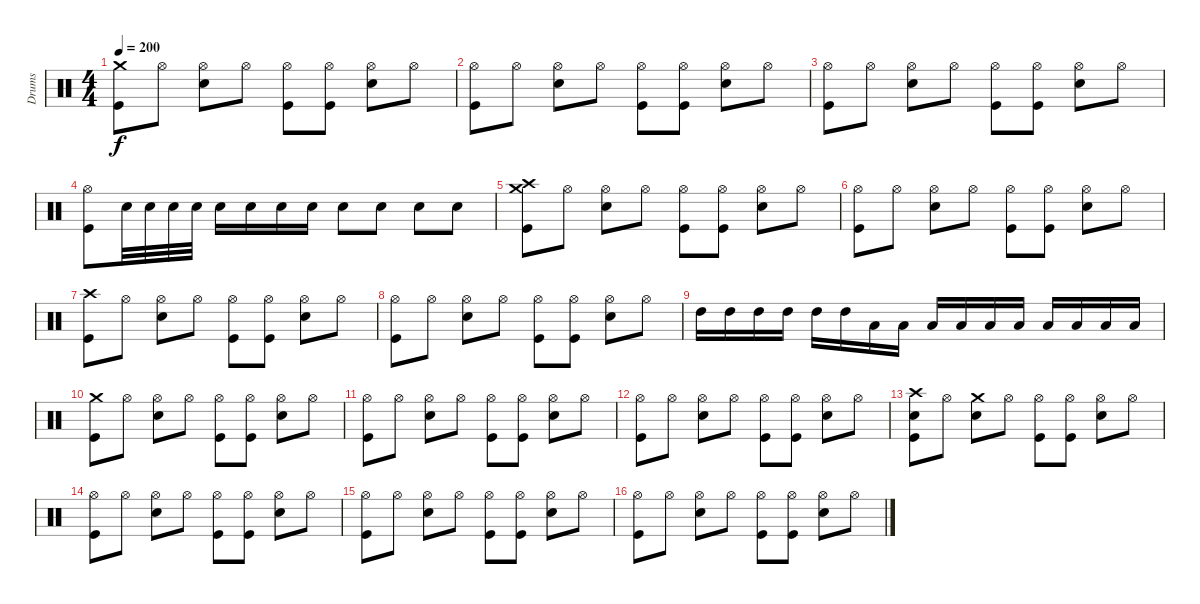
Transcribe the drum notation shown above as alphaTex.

\track ("Drums" "Drums") {instrument percussion}
\staff {score}
\articulation defaults
\ts (4 4)
\tempo 200
\clef neutral
\ks c
("Crash medium (hit)" "Kick (hit)").8{dy f} "Hi-Hat (open)".8 ("Hi-Hat (open)" "Snare (hit) 2").8 "Hi-Hat (open)".8 ("Hi-Hat (open)" "Kick (hit)").8 ("Hi-Hat (open)" "Kick (hit)").8 ("Hi-Hat (open)" "Snare (hit) 2").8 "Hi-Hat (open)".8 |
("Hi-Hat (open)" "Kick (hit)").8 "Hi-Hat (open)".8 ("Hi-Hat (open)" "Snare (hit) 2").8 "Hi-Hat (open)".8 ("Hi-Hat (open)" "Kick (hit)").8 ("Hi-Hat (open)" "Kick (hit)").8 ("Hi-Hat (open)" "Snare (hit) 2").8 "Hi-Hat (open)".8 |
("Hi-Hat (open)" "Kick (hit)").8 "Hi-Hat (open)".8 ("Hi-Hat (open)" "Snare (hit) 2").8 "Hi-Hat (open)".8 ("Hi-Hat (open)" "Kick (hit)").8 ("Hi-Hat (open)" "Kick (hit)").8 ("Hi-Hat (open)" "Snare (hit) 2").8 "Hi-Hat (open)".8 |
("Hi-Hat (open)" "Kick (hit)").8 "Snare (hit) 2".32 "Snare (hit) 2".32 "Snare (hit) 2".32 "Snare (hit) 2".32 "Snare (hit) 2".16 "Snare (hit) 2".16 "Snare (hit) 2".16 "Snare (hit) 2".16 "Snare (hit) 2".8 "Snare (hit) 2".8 "Snare (hit) 2".8 "Snare (hit) 2".8 |
("Crash medium (hit)" "Crash high (hit)" "Kick (hit)").8 "Hi-Hat (open)".8 ("Hi-Hat (open)" "Snare (hit) 2").8 "Hi-Hat (open)".8 ("Hi-Hat (open)" "Kick (hit)").8 ("Hi-Hat (open)" "Kick (hit)").8 ("Hi-Hat (open)" "Snare (hit) 2").8 "Hi-Hat (open)".8 |
("Hi-Hat (open)" "Kick (hit)").8 "Hi-Hat (open)".8 ("Hi-Hat (open)" "Snare (hit) 2").8 "Hi-Hat (open)".8 ("Hi-Hat (open)" "Kick (hit)").8 ("Hi-Hat (open)" "Kick (hit)").8 ("Hi-Hat (open)" "Snare (hit) 2").8 "Hi-Hat (open)".8 |
("Crash high (hit)" "Kick (hit)").8 "Hi-Hat (open)".8 ("Hi-Hat (open)" "Snare (hit) 2").8 "Hi-Hat (open)".8 ("Hi-Hat (open)" "Kick (hit)").8 ("Hi-Hat (open)" "Kick (hit)").8 ("Hi-Hat (open)" "Snare (hit) 2").8 "Hi-Hat (open)".8 |
("Hi-Hat (open)" "Kick (hit)").8 "Hi-Hat (open)".8 ("Hi-Hat (open)" "Snare (hit) 2").8 "Hi-Hat (open)".8 ("Hi-Hat (open)" "Kick (hit)").8 ("Hi-Hat (open)" "Kick (hit)").8 ("Hi-Hat (open)" "Snare (hit) 2").8 "Hi-Hat (open)".8 |
"High Tom (hit)".16 "High Tom (hit)".16 "High Tom (hit)".16 "High Tom (hit)".16 "High Tom (hit)".16 "High Tom (hit)".16 "Low Tom (hit)".16 "Low Tom (hit)".16 "Low Tom (hit)".16 "Low Tom (hit)".16 "Low Tom (hit)".16 "Low Tom (hit)".16 "Low Tom (hit)".16 "Low Tom (hit)".16 "Low Tom (hit)".16 "Low Tom (hit)".16 |
("Crash medium (hit)" "Kick (hit)").8 "Hi-Hat (open)".8 ("Hi-Hat (open)" "Snare (hit) 2").8 "Hi-Hat (open)".8 ("Hi-Hat (open)" "Kick (hit)").8 ("Hi-Hat (open)" "Kick (hit)").8 ("Hi-Hat (open)" "Snare (hit) 2").8 "Hi-Hat (open)".8 |
("Hi-Hat (open)" "Kick (hit)").8 "Hi-Hat (open)".8 ("Hi-Hat (open)" "Snare (hit) 2").8 "Hi-Hat (open)".8 ("Hi-Hat (open)" "Kick (hit)").8 ("Hi-Hat (open)" "Kick (hit)").8 ("Hi-Hat (open)" "Snare (hit) 2").8 "Hi-Hat (open)".8 |
("Hi-Hat (open)" "Kick (hit)").8 "Hi-Hat (open)".8 ("Hi-Hat (open)" "Snare (hit) 2").8 "Hi-Hat (open)".8 ("Hi-Hat (open)" "Kick (hit)").8 ("Hi-Hat (open)" "Kick (hit)").8 ("Hi-Hat (open)" "Snare (hit) 2").8 "Hi-Hat (open)".8 |
("Crash high (hit)" "Snare (hit) 2" "Kick (hit)").8 "Hi-Hat (open)".8 ("Crash medium (hit)" "Snare (hit) 2").8 "Hi-Hat (open)".8 ("Hi-Hat (open)" "Kick (hit)").8 ("Hi-Hat (open)" "Kick (hit)").8 ("Hi-Hat (open)" "Snare (hit) 2").8 "Hi-Hat (open)".8 |
("Hi-Hat (open)" "Kick (hit)").8 "Hi-Hat (open)".8 ("Hi-Hat (open)" "Snare (hit) 2").8 "Hi-Hat (open)".8 ("Hi-Hat (open)" "Kick (hit)").8 ("Hi-Hat (open)" "Kick (hit)").8 ("Hi-Hat (open)" "Snare (hit) 2").8 "Hi-Hat (open)".8 |
("Hi-Hat (open)" "Kick (hit)").8 "Hi-Hat (open)".8 ("Hi-Hat (open)" "Snare (hit) 2").8 "Hi-Hat (open)".8 ("Hi-Hat (open)" "Kick (hit)").8 ("Hi-Hat (open)" "Kick (hit)").8 ("Hi-Hat (open)" "Snare (hit) 2").8 "Hi-Hat (open)".8 |
("Hi-Hat (open)" "Kick (hit)").8 "Hi-Hat (open)".8 ("Hi-Hat (open)" "Snare (hit) 2").8 "Hi-Hat (open)".8 ("Hi-Hat (open)" "Kick (hit)").8 ("Hi-Hat (open)" "Kick (hit)").8 ("Hi-Hat (open)" "Snare (hit) 2").8 "Hi-Hat (open)".8
